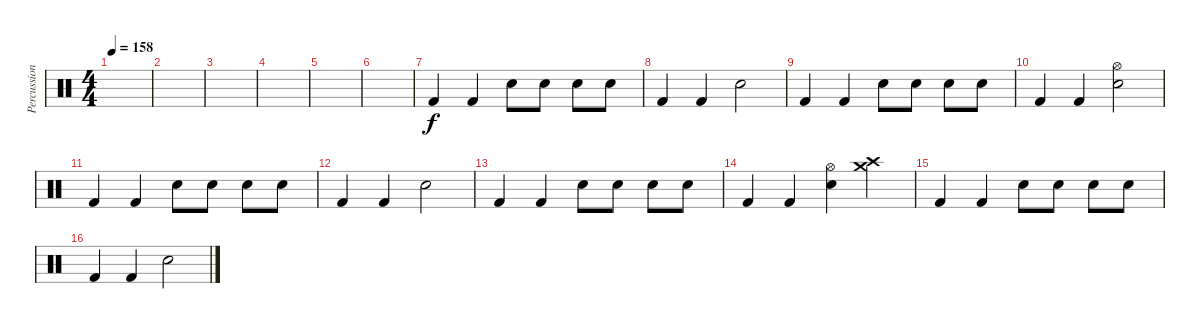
\track ("Percussion" "Percussion") {instrument percussion}
\staff {score}
\articulation defaults
\ts (4 4)
\tempo 158
\clef neutral
\ks c
|
|
|
|
|
|
"Kick (hit) 2".4 "Kick (hit) 2".4 "Electric Snare (hit)".8 "Electric Snare (hit)".8 "Electric Snare (hit)".8 "Electric Snare (hit)".8 |
"Kick (hit) 2".4 "Kick (hit) 2".4 "Electric Snare (hit)".2 |
"Kick (hit) 2".4 "Kick (hit) 2".4 "Electric Snare (hit)".8 "Electric Snare (hit)".8 "Electric Snare (hit)".8 "Electric Snare (hit)".8 |
"Kick (hit) 2".4 "Kick (hit) 2".4 ("Hi-Hat (open)" "Electric Snare (hit)").2 |
"Kick (hit) 2".4 "Kick (hit) 2".4 "Electric Snare (hit)".8 "Electric Snare (hit)".8 "Electric Snare (hit)".8 "Electric Snare (hit)".8 |
"Kick (hit) 2".4 "Kick (hit) 2".4 "Electric Snare (hit)".2 |
"Kick (hit) 2".4 "Kick (hit) 2".4 "Electric Snare (hit)".8 "Electric Snare (hit)".8 "Electric Snare (hit)".8 "Electric Snare (hit)".8 |
"Kick (hit) 2".4 "Kick (hit) 2".4 ("Hi-Hat (open)" "Electric Snare (hit)").4 ("Crash high (hit)" "Crash medium (hit)").4 |
"Kick (hit) 2".4 "Kick (hit) 2".4 "Electric Snare (hit)".8 "Electric Snare (hit)".8 "Electric Snare (hit)".8 "Electric Snare (hit)".8 |
"Kick (hit) 2".4 "Kick (hit) 2".4 "Electric Snare (hit)".2
